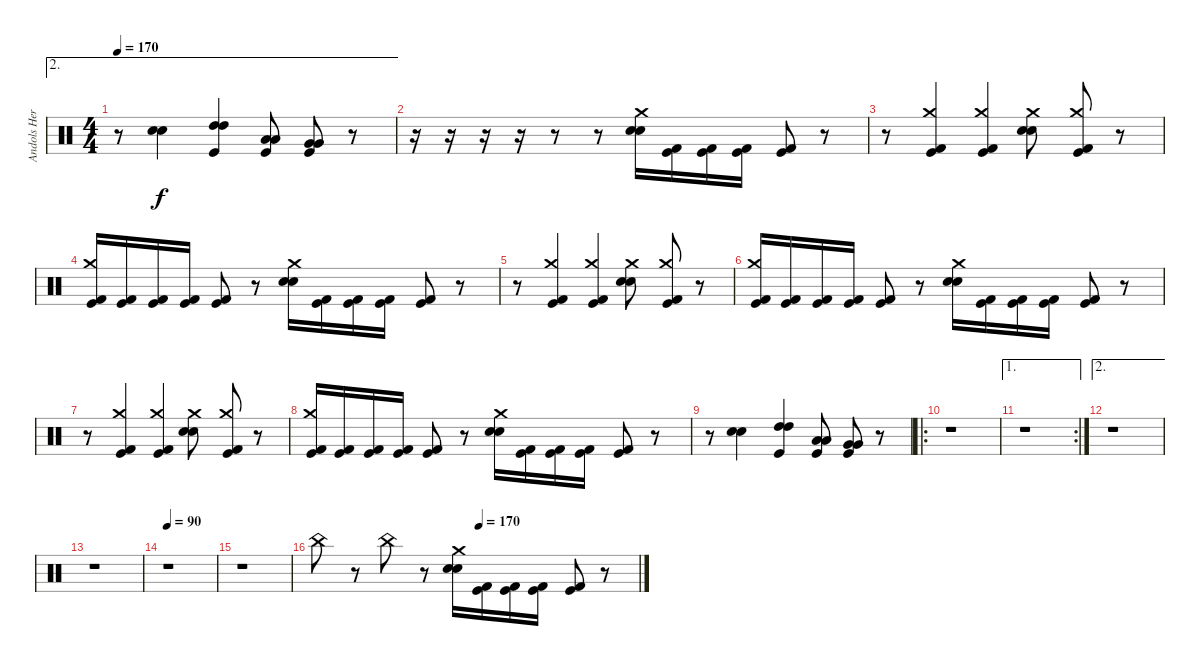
\track ("Andols Herrick" "Andols Her") {instrument percussion}
\staff {score}
\articulation defaults
\ae 2
\ts (4 4)
\tempo 170
\clef neutral
\ks c
r.8{dy f} ("Electric Snare (hit)" "Snare (hit) 2").4 ("High Tom (hit)" "High Tom (hit)" "Kick (hit)").4 ("Low Tom (hit)" "Low Tom (hit)" "Kick (hit)").8 ("Very Low Tom (hit)" "Very Low Tom (hit)" "Kick (hit)").8 r.8 |
r.16 r.16 r.16 r.16 r.8 r.8 ("Crash medium (hit)" "Electric Snare (hit)" "Snare (hit) 2").16 ("Kick (hit) 2" "Kick (hit)").16 ("Kick (hit) 2" "Kick (hit)").16 ("Kick (hit) 2" "Kick (hit)").16 ("Kick (hit) 2" "Kick (hit)").8 r.8 |
r.8 ("Crash medium (hit)" "Kick (hit) 2" "Kick (hit)").4 ("Crash medium (hit)" "Kick (hit) 2" "Kick (hit)").4 ("Crash medium (hit)" "Electric Snare (hit)" "Snare (hit) 2").8 ("Crash medium (hit)" "Kick (hit) 2" "Kick (hit)").8 r.8 |
("Crash medium (hit)" "Kick (hit) 2" "Kick (hit)").16 ("Kick (hit) 2" "Kick (hit)").16 ("Kick (hit) 2" "Kick (hit)").16 ("Kick (hit) 2" "Kick (hit)").16 ("Kick (hit) 2" "Kick (hit)").8 r.8 ("Crash medium (hit)" "Electric Snare (hit)" "Snare (hit) 2").16 ("Kick (hit) 2" "Kick (hit)").16 ("Kick (hit) 2" "Kick (hit)").16 ("Kick (hit) 2" "Kick (hit)").16 ("Kick (hit) 2" "Kick (hit)").8 r.8 |
r.8 ("Crash medium (hit)" "Kick (hit) 2" "Kick (hit)").4 ("Crash medium (hit)" "Kick (hit) 2" "Kick (hit)").4 ("Crash medium (hit)" "Electric Snare (hit)" "Snare (hit) 2").8 ("Crash medium (hit)" "Kick (hit) 2" "Kick (hit)").8 r.8 |
("Crash medium (hit)" "Kick (hit) 2" "Kick (hit)").16 ("Kick (hit) 2" "Kick (hit)").16 ("Kick (hit) 2" "Kick (hit)").16 ("Kick (hit) 2" "Kick (hit)").16 ("Kick (hit) 2" "Kick (hit)").8 r.8 ("Crash medium (hit)" "Electric Snare (hit)" "Snare (hit) 2").16 ("Kick (hit) 2" "Kick (hit)").16 ("Kick (hit) 2" "Kick (hit)").16 ("Kick (hit) 2" "Kick (hit)").16 ("Kick (hit) 2" "Kick (hit)").8 r.8 |
r.8 ("Crash medium (hit)" "Kick (hit) 2" "Kick (hit)").4 ("Crash medium (hit)" "Kick (hit) 2" "Kick (hit)").4 ("Crash medium (hit)" "Electric Snare (hit)" "Snare (hit) 2").8 ("Crash medium (hit)" "Kick (hit) 2" "Kick (hit)").8 r.8 |
("Crash medium (hit)" "Kick (hit) 2" "Kick (hit)").16 ("Kick (hit) 2" "Kick (hit)").16 ("Kick (hit) 2" "Kick (hit)").16 ("Kick (hit) 2" "Kick (hit)").16 ("Kick (hit) 2" "Kick (hit)").8 r.8 ("Crash medium (hit)" "Electric Snare (hit)" "Snare (hit) 2").16 ("Kick (hit) 2" "Kick (hit)").16 ("Kick (hit) 2" "Kick (hit)").16 ("Kick (hit) 2" "Kick (hit)").16 ("Kick (hit) 2" "Kick (hit)").8 r.8 |
r.8 ("Electric Snare (hit)" "Snare (hit) 2").4 ("High Tom (hit)" "High Tom (hit)" "Kick (hit)").4 ("Low Tom (hit)" "Low Tom (hit)" "Kick (hit)").8 ("Very Low Tom (hit)" "Very Low Tom (hit)" "Kick (hit)").8 r.8 |
\ro
r.1 |
\ae 1
\rc 2
r.1 |
\ae 2
r.1 |
r.1 |
\tempo 90
r.1 |
r.1 |
\tempo (170 0.5)
"China (hit)".8 r.8 "China (hit)".8 r.8 ("Crash medium (hit)" "Electric Snare (hit)" "Snare (hit) 2").16 ("Kick (hit) 2" "Kick (hit)").16 ("Kick (hit) 2" "Kick (hit)").16 ("Kick (hit) 2" "Kick (hit)").16 ("Kick (hit) 2" "Kick (hit)").8 r.8
